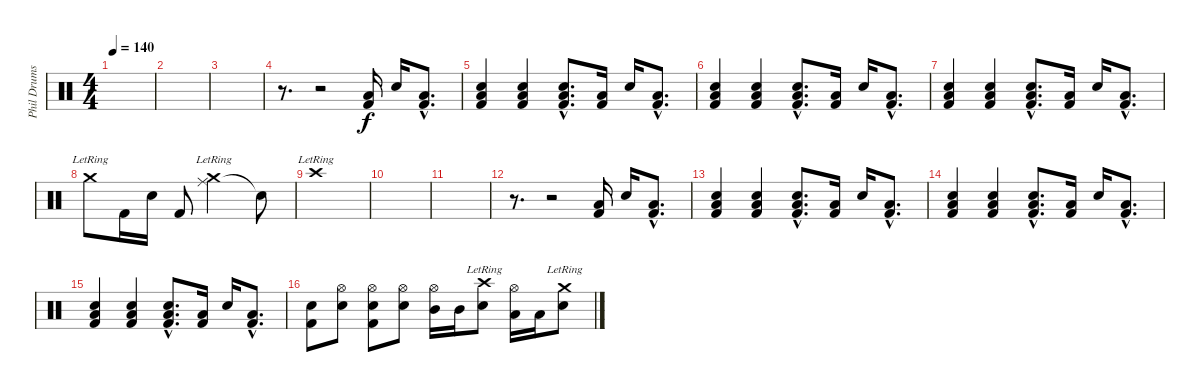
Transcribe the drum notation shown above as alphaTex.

\track ("Phil Drums" "Phil Drums") {instrument percussion}
\staff {score}
\articulation defaults
\ts (4 4)
\tempo 140
\clef neutral
\ks c
|
|
|
r.8{d} r.2 ("Kick (hit) 2" "Low Floor Tom (hit)").16 "Snare (hit) 2".16 ("Kick (hit) 2"{hac} "Low Floor Tom (hit)"{hac}).8{d} |
("Kick (hit) 2" "Snare (hit) 2" "Low Floor Tom (hit)").4 ("Kick (hit) 2" "Snare (hit) 2" "Low Floor Tom (hit)").4 ("Kick (hit) 2"{hac} "Snare (hit) 2"{hac} "Low Floor Tom (hit)"{hac}).8{d} ("Kick (hit) 2" "Low Floor Tom (hit)").16 "Snare (hit) 2".16 ("Kick (hit) 2"{hac} "Low Floor Tom (hit)"{hac}).8{d} |
("Kick (hit) 2" "Snare (hit) 2" "Low Floor Tom (hit)").4 ("Kick (hit) 2" "Snare (hit) 2" "Low Floor Tom (hit)").4 ("Kick (hit) 2"{hac} "Snare (hit) 2"{hac} "Low Floor Tom (hit)"{hac}).8{d} ("Kick (hit) 2" "Low Floor Tom (hit)").16 "Snare (hit) 2".16 ("Kick (hit) 2"{hac} "Low Floor Tom (hit)"{hac}).8{d} |
("Kick (hit) 2" "Snare (hit) 2" "Low Floor Tom (hit)").4 ("Kick (hit) 2" "Snare (hit) 2" "Low Floor Tom (hit)").4 ("Kick (hit) 2"{hac} "Snare (hit) 2"{hac} "Low Floor Tom (hit)"{hac}).8{d} ("Kick (hit) 2" "Low Floor Tom (hit)").16 "Snare (hit) 2".16 ("Kick (hit) 2"{hac} "Low Floor Tom (hit)"{hac}).8{d} |
"Crash medium (hit)"{lr}.8 "Kick (hit) 2".16 "Snare (hit) 2".16 "Kick (hit) 2".8 ("Ride (middle)"{lr} "Crash medium (hit)"{lr}).2 "Snare (hit)"{t}.8 |
"Crash high (hit)"{lr}.1 |
|
|
r.8{d} r.2 ("Kick (hit) 2" "Low Floor Tom (hit)").16 "Snare (hit) 2".16 ("Kick (hit) 2"{hac} "Low Floor Tom (hit)"{hac}).8{d} |
("Kick (hit) 2" "Snare (hit) 2" "Low Floor Tom (hit)").4 ("Kick (hit) 2" "Snare (hit) 2" "Low Floor Tom (hit)").4 ("Kick (hit) 2"{hac} "Snare (hit) 2"{hac} "Low Floor Tom (hit)"{hac}).8{d} ("Kick (hit) 2" "Low Floor Tom (hit)").16 "Snare (hit) 2".16 ("Kick (hit) 2"{hac} "Low Floor Tom (hit)"{hac}).8{d} |
("Kick (hit) 2" "Snare (hit) 2" "Low Floor Tom (hit)").4 ("Kick (hit) 2" "Snare (hit) 2" "Low Floor Tom (hit)").4 ("Kick (hit) 2"{hac} "Snare (hit) 2"{hac} "Low Floor Tom (hit)"{hac}).8{d} ("Kick (hit) 2" "Low Floor Tom (hit)").16 "Snare (hit) 2".16 ("Kick (hit) 2"{hac} "Low Floor Tom (hit)"{hac}).8{d} |
("Kick (hit) 2" "Snare (hit) 2" "Low Floor Tom (hit)").4 ("Kick (hit) 2" "Snare (hit) 2" "Low Floor Tom (hit)").4 ("Kick (hit) 2"{hac} "Snare (hit) 2"{hac} "Low Floor Tom (hit)"{hac}).8{d} ("Kick (hit) 2" "Low Floor Tom (hit)").16 "Snare (hit) 2".16 ("Kick (hit) 2"{hac} "Low Floor Tom (hit)"{hac}).8{d} |
("Kick (hit) 2" "Snare (hit) 2").8 ("Snare (hit) 2" "Hi-Hat (open)").8 ("Kick (hit) 2" "Snare (hit) 2" "Hi-Hat (open)").8 ("Snare (hit) 2" "Hi-Hat (open)").8 ("Mid Tom (hit)" "Hi-Hat (open)").16 "Mid Tom (hit)".16 ("Snare (hit) 2" "Crash high (hit)"{lr}).8 ("Low Tom (hit)" "Hi-Hat (open)").16 "Low Tom (hit)".16 ("Snare (hit) 2" "Crash medium (hit)"{lr}).8
